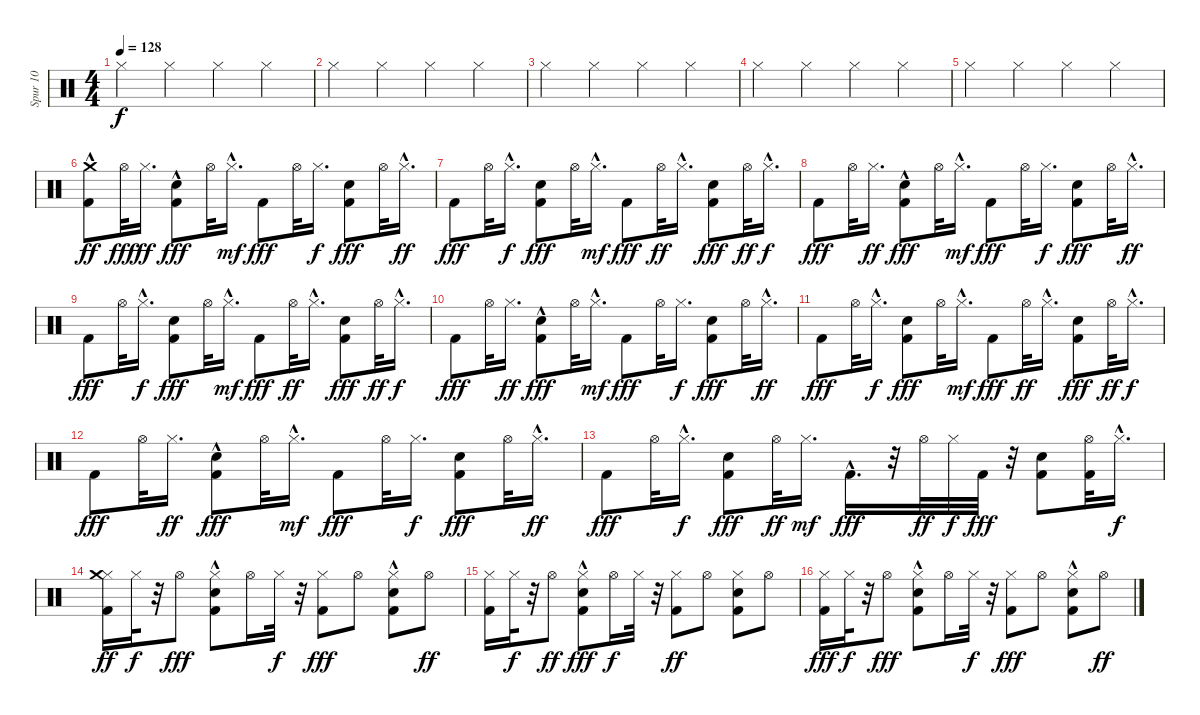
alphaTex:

\track ("Spur 10" "Spur 10") {instrument percussion}
\staff {score}
\articulation defaults
\ts (4 4)
\tempo 128
\clef neutral
\ks c "Hi-Hat (closed)".4{dy f} "Hi-Hat (closed)".4 "Hi-Hat (closed)".4 "Hi-Hat (closed)".4
|
"Hi-Hat (closed)".4 "Hi-Hat (closed)".4 "Hi-Hat (closed)".4 "Hi-Hat (closed)".4 |
"Hi-Hat (closed)".4 "Hi-Hat (closed)".4 "Hi-Hat (closed)".4 "Hi-Hat (closed)".4 |
"Hi-Hat (closed)".4 "Hi-Hat (closed)".4 "Hi-Hat (closed)".4 "Hi-Hat (closed)".4 |
"Hi-Hat (closed)".4 "Hi-Hat (closed)".4 "Hi-Hat (closed)".4 "Hi-Hat (closed)".4 |
("Kick (hit) 2" "Crash medium (hit)"{hac}).8{dy ff} "Hi-Hat (open)".32{dy fff} "Hi-Hat (closed)".16{d dy ff} ("Hand Clap (hit)"{hac} "Kick (hit) 2").8{dy fff} "Hi-Hat (open)".32 "Hi-Hat (closed)"{hac}.16{d dy mf} "Kick (hit) 2".8{dy fff} "Hi-Hat (open)".32 "Hi-Hat (closed)".16{d dy f} ("Hand Clap (hit)" "Kick (hit) 2").8{dy fff} "Hi-Hat (open)".32 "Hi-Hat (closed)"{hac}.16{d dy ff} |
"Kick (hit) 2".8{dy fff} "Hi-Hat (open)".32 "Hi-Hat (closed)"{hac}.16{d dy f} ("Hand Clap (hit)" "Kick (hit) 2").8{dy fff} "Hi-Hat (open)".32 "Hi-Hat (closed)"{hac}.16{d dy mf} "Kick (hit) 2".8{dy fff} "Hi-Hat (open)".32{dy ff} "Hi-Hat (closed)"{hac}.16{d} ("Hand Clap (hit)" "Kick (hit) 2").8{dy fff} "Hi-Hat (open)".32{dy ff} "Hi-Hat (closed)"{hac}.16{d dy f} |
"Kick (hit) 2".8{dy fff} "Hi-Hat (open)".32 "Hi-Hat (closed)".16{d dy ff} ("Hand Clap (hit)"{hac} "Kick (hit) 2").8{dy fff} "Hi-Hat (open)".32 "Hi-Hat (closed)"{hac}.16{d dy mf} "Kick (hit) 2".8{dy fff} "Hi-Hat (open)".32 "Hi-Hat (closed)".16{d dy f} ("Hand Clap (hit)" "Kick (hit) 2").8{dy fff} "Hi-Hat (open)".32 "Hi-Hat (closed)"{hac}.16{d dy ff} |
"Kick (hit) 2".8{dy fff} "Hi-Hat (open)".32 "Hi-Hat (closed)"{hac}.16{d dy f} ("Hand Clap (hit)" "Kick (hit) 2").8{dy fff} "Hi-Hat (open)".32 "Hi-Hat (closed)"{hac}.16{d dy mf} "Kick (hit) 2".8{dy fff} "Hi-Hat (open)".32{dy ff} "Hi-Hat (closed)"{hac}.16{d} ("Hand Clap (hit)" "Kick (hit) 2").8{dy fff} "Hi-Hat (open)".32{dy ff} "Hi-Hat (closed)"{hac}.16{d dy f} |
"Kick (hit) 2".8{dy fff} "Hi-Hat (open)".32 "Hi-Hat (closed)".16{d dy ff} ("Hand Clap (hit)"{hac} "Kick (hit) 2").8{dy fff} "Hi-Hat (open)".32 "Hi-Hat (closed)"{hac}.16{d dy mf} "Kick (hit) 2".8{dy fff} "Hi-Hat (open)".32 "Hi-Hat (closed)".16{d dy f} ("Hand Clap (hit)" "Kick (hit) 2").8{dy fff} "Hi-Hat (open)".32 "Hi-Hat (closed)"{hac}.16{d dy ff} |
"Kick (hit) 2".8{dy fff} "Hi-Hat (open)".32 "Hi-Hat (closed)"{hac}.16{d dy f} ("Hand Clap (hit)" "Kick (hit) 2").8{dy fff} "Hi-Hat (open)".32 "Hi-Hat (closed)"{hac}.16{d dy mf} "Kick (hit) 2".8{dy fff} "Hi-Hat (open)".32{dy ff} "Hi-Hat (closed)"{hac}.16{d} ("Hand Clap (hit)" "Kick (hit) 2").8{dy fff} "Hi-Hat (open)".32{dy ff} "Hi-Hat (closed)"{hac}.16{d dy f} |
"Kick (hit) 2".8{dy fff} "Hi-Hat (open)".32 "Hi-Hat (closed)".16{d dy ff} ("Hand Clap (hit)"{hac} "Kick (hit) 2").8{dy fff} "Hi-Hat (open)".32 "Hi-Hat (closed)"{hac}.16{d dy mf} "Kick (hit) 2".8{dy fff} "Hi-Hat (open)".32 "Hi-Hat (closed)".16{d dy f} ("Hand Clap (hit)" "Kick (hit) 2").8{dy fff} "Hi-Hat (open)".32 "Hi-Hat (closed)"{hac}.16{d dy ff} |
"Kick (hit) 2".8{dy fff} "Hi-Hat (open)".32 "Hi-Hat (closed)"{hac}.16{d dy f} ("Hand Clap (hit)" "Kick (hit) 2").8{dy fff} "Hi-Hat (open)".32{dy ff} "Hi-Hat (closed)".16{d dy mf} "Kick (hit) 2"{hac}.16{d dy fff} r.32 "Hi-Hat (open)".32{dy ff} "Hi-Hat (closed)".32{dy f} "Kick (hit) 2".32{dy fff} r.32 ("Kick (hit) 2" "Hand Clap (hit)").8 ("Hi-Hat (open)" "Kick (hit) 2").32 "Hi-Hat (closed)"{hac}.16{d dy f} |
("Kick (hit) 2" "Hi-Hat (closed)" "Crash medium (hit)").16{dy ff} "Hi-Hat (closed)".32{dy f} r.32 "Hi-Hat (open)".8{dy fff} ("Kick (hit) 2"{hac} "Hi-Hat (closed)" "Hand Clap (hit)").8 "Hi-Hat (open)".16 "Hi-Hat (closed)".32{dy f} r.32 ("Hi-Hat (closed)" "Kick (hit) 2").8{dy fff} "Hi-Hat (open)".8 ("Hi-Hat (closed)" "Hand Clap (hit)" "Kick (hit) 2"{hac}).8 "Hi-Hat (open)".8{dy ff} |
("Kick (hit) 2" "Hi-Hat (closed)").16 "Hi-Hat (closed)".32{dy f} r.32 "Hi-Hat (open)".8{dy ff} ("Hand Clap (hit)" "Hi-Hat (closed)" "Kick (hit) 2"{hac}).8{dy fff} "Hi-Hat (open)".16{dy f} "Hi-Hat (closed)".32 r.32 ("Kick (hit) 2" "Hi-Hat (closed)").8{dy ff} "Hi-Hat (open)".8 ("Kick (hit) 2" "Hand Clap (hit)" "Hi-Hat (closed)").8 "Hi-Hat (open)".8 |
("Kick (hit) 2" "Hi-Hat (closed)").16{dy fff} "Hi-Hat (closed)".32{dy f} r.32 "Hi-Hat (open)".8{dy fff} ("Kick (hit) 2"{hac} "Hi-Hat (closed)" "Hand Clap (hit)").8 "Hi-Hat (open)".16 "Hi-Hat (closed)".32{dy f} r.32 ("Hi-Hat (closed)" "Kick (hit) 2").8{dy fff} "Hi-Hat (open)".8 ("Hi-Hat (closed)" "Hand Clap (hit)" "Kick (hit) 2"{hac}).8 "Hi-Hat (open)".8{dy ff}
